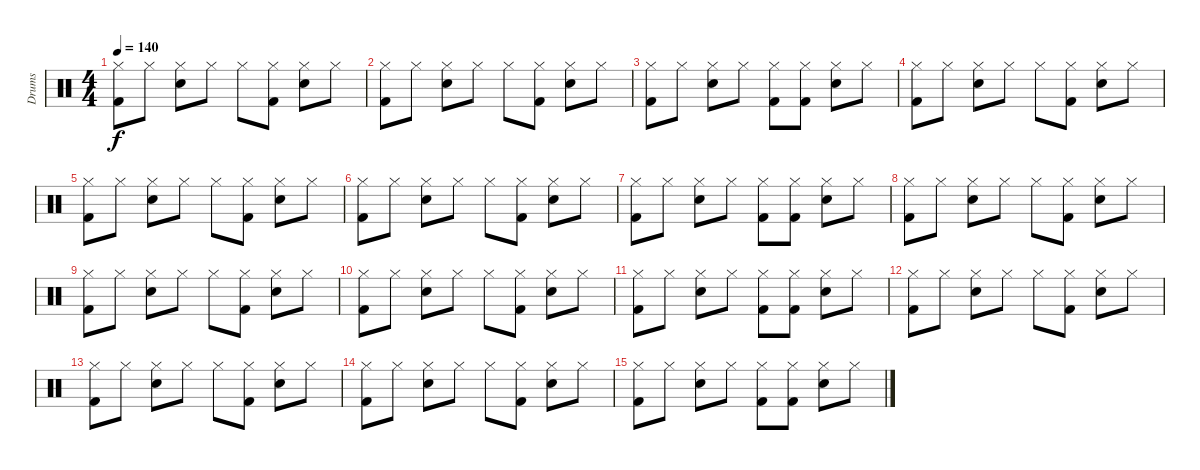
\track ("Drums" "Drums") {instrument percussion}
\staff {score}
\articulation defaults
\ts (4 4)
\tempo 140
\clef neutral
\ks c
("Hi-Hat (closed)" "Kick (hit) 2").8{dy f} "Hi-Hat (closed)".8 ("Hi-Hat (closed)" "Snare (hit) 2").8 "Hi-Hat (closed)".8 "Hi-Hat (closed)".8 ("Hi-Hat (closed)" "Kick (hit) 2").8 ("Hi-Hat (closed)" "Snare (hit) 2").8 "Hi-Hat (closed)".8 |
("Hi-Hat (closed)" "Kick (hit) 2").8 "Hi-Hat (closed)".8 ("Hi-Hat (closed)" "Snare (hit) 2").8 "Hi-Hat (closed)".8 "Hi-Hat (closed)".8 ("Hi-Hat (closed)" "Kick (hit) 2").8 ("Hi-Hat (closed)" "Snare (hit) 2").8 "Hi-Hat (closed)".8 |
("Hi-Hat (closed)" "Kick (hit) 2").8 "Hi-Hat (closed)".8 ("Hi-Hat (closed)" "Snare (hit) 2").8 "Hi-Hat (closed)".8 ("Hi-Hat (closed)" "Kick (hit) 2").8 ("Hi-Hat (closed)" "Kick (hit) 2").8 ("Hi-Hat (closed)" "Snare (hit) 2").8 "Hi-Hat (closed)".8 |
("Hi-Hat (closed)" "Kick (hit) 2").8 "Hi-Hat (closed)".8 ("Hi-Hat (closed)" "Snare (hit) 2").8 "Hi-Hat (closed)".8 "Hi-Hat (closed)".8 ("Hi-Hat (closed)" "Kick (hit) 2").8 ("Hi-Hat (closed)" "Snare (hit) 2").8 "Hi-Hat (closed)".8 |
("Hi-Hat (closed)" "Kick (hit) 2").8 "Hi-Hat (closed)".8 ("Hi-Hat (closed)" "Snare (hit) 2").8 "Hi-Hat (closed)".8 "Hi-Hat (closed)".8 ("Hi-Hat (closed)" "Kick (hit) 2").8 ("Hi-Hat (closed)" "Snare (hit) 2").8 "Hi-Hat (closed)".8 |
("Hi-Hat (closed)" "Kick (hit) 2").8 "Hi-Hat (closed)".8 ("Hi-Hat (closed)" "Snare (hit) 2").8 "Hi-Hat (closed)".8 "Hi-Hat (closed)".8 ("Hi-Hat (closed)" "Kick (hit) 2").8 ("Hi-Hat (closed)" "Snare (hit) 2").8 "Hi-Hat (closed)".8 |
("Hi-Hat (closed)" "Kick (hit) 2").8 "Hi-Hat (closed)".8 ("Hi-Hat (closed)" "Snare (hit) 2").8 "Hi-Hat (closed)".8 ("Hi-Hat (closed)" "Kick (hit) 2").8 ("Hi-Hat (closed)" "Kick (hit) 2").8 ("Hi-Hat (closed)" "Snare (hit) 2").8 "Hi-Hat (closed)".8 |
("Hi-Hat (closed)" "Kick (hit) 2").8 "Hi-Hat (closed)".8 ("Hi-Hat (closed)" "Snare (hit) 2").8 "Hi-Hat (closed)".8 "Hi-Hat (closed)".8 ("Hi-Hat (closed)" "Kick (hit) 2").8 ("Hi-Hat (closed)" "Snare (hit) 2").8 "Hi-Hat (closed)".8 |
("Hi-Hat (closed)" "Kick (hit) 2").8 "Hi-Hat (closed)".8 ("Hi-Hat (closed)" "Snare (hit) 2").8 "Hi-Hat (closed)".8 "Hi-Hat (closed)".8 ("Hi-Hat (closed)" "Kick (hit) 2").8 ("Hi-Hat (closed)" "Snare (hit) 2").8 "Hi-Hat (closed)".8 |
("Hi-Hat (closed)" "Kick (hit) 2").8 "Hi-Hat (closed)".8 ("Hi-Hat (closed)" "Snare (hit) 2").8 "Hi-Hat (closed)".8 "Hi-Hat (closed)".8 ("Hi-Hat (closed)" "Kick (hit) 2").8 ("Hi-Hat (closed)" "Snare (hit) 2").8 "Hi-Hat (closed)".8 |
("Hi-Hat (closed)" "Kick (hit) 2").8 "Hi-Hat (closed)".8 ("Hi-Hat (closed)" "Snare (hit) 2").8 "Hi-Hat (closed)".8 ("Hi-Hat (closed)" "Kick (hit) 2").8 ("Hi-Hat (closed)" "Kick (hit) 2").8 ("Hi-Hat (closed)" "Snare (hit) 2").8 "Hi-Hat (closed)".8 |
("Hi-Hat (closed)" "Kick (hit) 2").8 "Hi-Hat (closed)".8 ("Hi-Hat (closed)" "Snare (hit) 2").8 "Hi-Hat (closed)".8 "Hi-Hat (closed)".8 ("Hi-Hat (closed)" "Kick (hit) 2").8 ("Hi-Hat (closed)" "Snare (hit) 2").8 "Hi-Hat (closed)".8 |
("Hi-Hat (closed)" "Kick (hit) 2").8 "Hi-Hat (closed)".8 ("Hi-Hat (closed)" "Snare (hit) 2").8 "Hi-Hat (closed)".8 "Hi-Hat (closed)".8 ("Hi-Hat (closed)" "Kick (hit) 2").8 ("Hi-Hat (closed)" "Snare (hit) 2").8 "Hi-Hat (closed)".8 |
("Hi-Hat (closed)" "Kick (hit) 2").8 "Hi-Hat (closed)".8 ("Hi-Hat (closed)" "Snare (hit) 2").8 "Hi-Hat (closed)".8 "Hi-Hat (closed)".8 ("Hi-Hat (closed)" "Kick (hit) 2").8 ("Hi-Hat (closed)" "Snare (hit) 2").8 "Hi-Hat (closed)".8 |
("Hi-Hat (closed)" "Kick (hit) 2").8 "Hi-Hat (closed)".8 ("Hi-Hat (closed)" "Snare (hit) 2").8 "Hi-Hat (closed)".8 ("Hi-Hat (closed)" "Kick (hit) 2").8 ("Hi-Hat (closed)" "Kick (hit) 2").8 ("Hi-Hat (closed)" "Snare (hit) 2").8 "Hi-Hat (closed)".8
